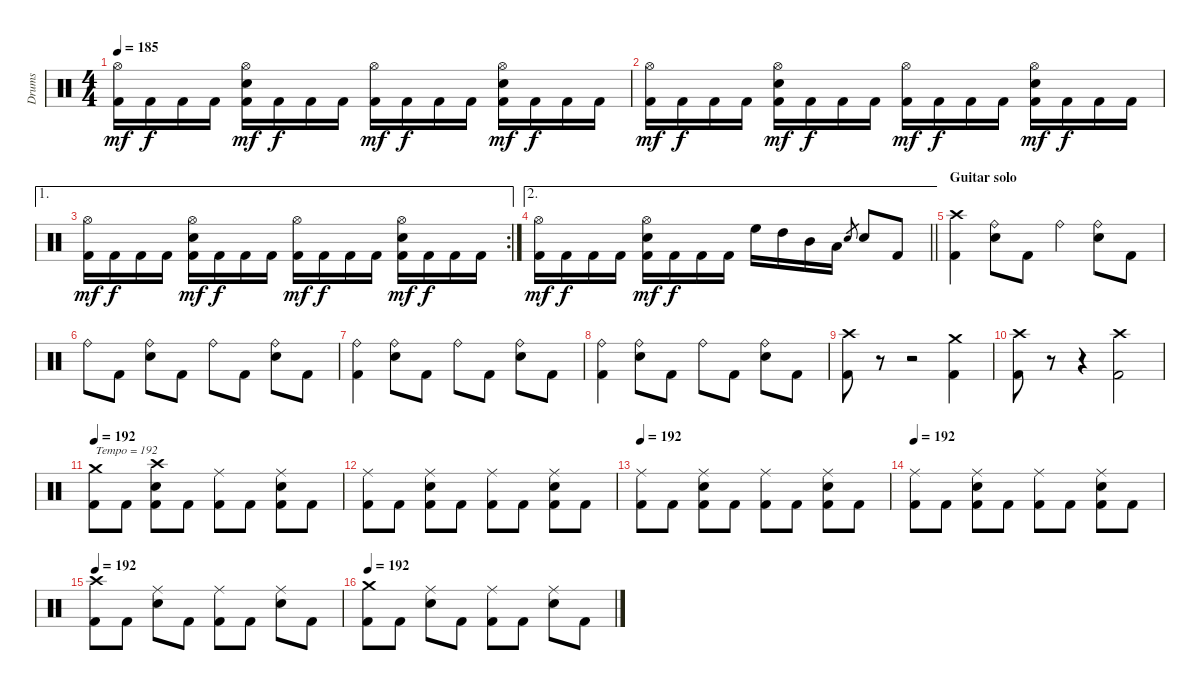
\track ("Drums" "Drums") {instrument percussion}
\staff {score}
\articulation defaults
\ts (4 4)
\tempo 185
\clef neutral
\ks c
("Hi-Hat (open)" "Kick (hit) 2").16{dy mf} "Kick (hit) 2".16{dy f} "Kick (hit) 2".16 "Kick (hit) 2".16 ("Hi-Hat (open)" "Electric Snare (hit)" "Kick (hit) 2").16{dy mf} "Kick (hit) 2".16{dy f} "Kick (hit) 2".16 "Kick (hit) 2".16 ("Hi-Hat (open)" "Kick (hit) 2").16{dy mf} "Kick (hit) 2".16{dy f} "Kick (hit) 2".16 "Kick (hit) 2".16 ("Hi-Hat (open)" "Electric Snare (hit)" "Kick (hit) 2").16{dy mf} "Kick (hit) 2".16{dy f} "Kick (hit) 2".16 "Kick (hit) 2".16 |
("Hi-Hat (open)" "Kick (hit) 2").16{dy mf} "Kick (hit) 2".16{dy f} "Kick (hit) 2".16 "Kick (hit) 2".16 ("Hi-Hat (open)" "Electric Snare (hit)" "Kick (hit) 2").16{dy mf} "Kick (hit) 2".16{dy f} "Kick (hit) 2".16 "Kick (hit) 2".16 ("Hi-Hat (open)" "Kick (hit) 2").16{dy mf} "Kick (hit) 2".16{dy f} "Kick (hit) 2".16 "Kick (hit) 2".16 ("Hi-Hat (open)" "Electric Snare (hit)" "Kick (hit) 2").16{dy mf} "Kick (hit) 2".16{dy f} "Kick (hit) 2".16 "Kick (hit) 2".16 |
\ae 1
\rc 2
("Hi-Hat (open)" "Kick (hit) 2").16{dy mf} "Kick (hit) 2".16{dy f} "Kick (hit) 2".16 "Kick (hit) 2".16 ("Hi-Hat (open)" "Electric Snare (hit)" "Kick (hit) 2").16{dy mf} "Kick (hit) 2".16{dy f} "Kick (hit) 2".16 "Kick (hit) 2".16 ("Hi-Hat (open)" "Kick (hit) 2").16{dy mf} "Kick (hit) 2".16{dy f} "Kick (hit) 2".16 "Kick (hit) 2".16 ("Hi-Hat (open)" "Electric Snare (hit)" "Kick (hit) 2").16{dy mf} "Kick (hit) 2".16{dy f} "Kick (hit) 2".16 "Kick (hit) 2".16 |
\ae 2
\barLineRight lightlight
("Hi-Hat (open)" "Kick (hit) 2").16{dy mf} "Kick (hit) 2".16{dy f} "Kick (hit) 2".16 "Kick (hit) 2".16 ("Hi-Hat (open)" "Electric Snare (hit)" "Kick (hit) 2").16{dy mf} "Kick (hit) 2".16{dy f} "Kick (hit) 2".16 "Kick (hit) 2".16 "High Floor Tom (hit)".16 "High Tom (hit)".16 "Mid Tom (hit)".16 "Low Tom (hit)".16 "Electric Snare (hit)".8{gr} "Electric Snare (hit)".8 "Kick (hit) 2".8 |
\section ("" "Guitar solo")
("Crash high (hit)" "Kick (hit) 2").4 ("Ride (bell)" "Electric Snare (hit)").8 "Kick (hit) 2".8 "Ride (bell)".4 ("Ride (bell)" "Electric Snare (hit)").8 "Kick (hit) 2".8 |
"Ride (bell)".8 "Kick (hit) 2".8 ("Ride (bell)" "Electric Snare (hit)").8 "Kick (hit) 2".8 "Ride (bell)".8 "Kick (hit) 2".8 ("Ride (bell)" "Electric Snare (hit)").8 "Kick (hit) 2".8 |
("Ride (bell)" "Kick (hit) 2").4 ("Ride (bell)" "Electric Snare (hit)").8 "Kick (hit) 2".8 "Ride (bell)".8 "Kick (hit) 2".8 ("Ride (bell)" "Electric Snare (hit)").8 "Kick (hit) 2".8 |
("Ride (bell)" "Kick (hit) 2").4 ("Ride (bell)" "Electric Snare (hit)").8 "Kick (hit) 2".8 "Ride (bell)".8 "Kick (hit) 2".8 ("Ride (bell)" "Electric Snare (hit)").8 "Kick (hit) 2".8 |
("Crash high (hit)" "Kick (hit) 2").8 r.8{volume 0} r.2 ("Crash medium (hit)" "Kick (hit) 2").4{volume 14} |
("Crash high (hit)" "Kick (hit) 2").8 r.8{volume 0} r.4 ("Crash high (hit)" "Kick (hit) 2").2{volume 14} |
\tempo 192
("Crash medium (hit)" "Kick (hit) 2").8{txt "Tempo = 192"} "Kick (hit) 2".8 ("Crash high (hit)" "Electric Snare (hit)" "Kick (hit) 2").8 "Kick (hit) 2".8 ("Ride (middle)" "Kick (hit) 2").8 "Kick (hit) 2".8 ("Ride (middle)" "Electric Snare (hit)" "Kick (hit) 2").8 "Kick (hit) 2".8 |
("Ride (middle)" "Kick (hit) 2").8 "Kick (hit) 2".8 ("Ride (middle)" "Electric Snare (hit)" "Kick (hit) 2").8 "Kick (hit) 2".8 ("Ride (middle)" "Kick (hit) 2").8 "Kick (hit) 2".8 ("Ride (middle)" "Electric Snare (hit)" "Kick (hit) 2").8 "Kick (hit) 2".8 |
\tempo 192
("Ride (middle)" "Kick (hit) 2").8 "Kick (hit) 2".8 ("Ride (middle)" "Electric Snare (hit)" "Kick (hit) 2").8 "Kick (hit) 2".8 ("Ride (middle)" "Kick (hit) 2").8 "Kick (hit) 2".8 ("Ride (middle)" "Electric Snare (hit)" "Kick (hit) 2").8 "Kick (hit) 2".8 |
\tempo 192
("Ride (middle)" "Kick (hit) 2").8 "Kick (hit) 2".8 ("Ride (middle)" "Electric Snare (hit)" "Kick (hit) 2").8 "Kick (hit) 2".8 ("Ride (middle)" "Kick (hit) 2").8 "Kick (hit) 2".8 ("Ride (middle)" "Electric Snare (hit)" "Kick (hit) 2").8 "Kick (hit) 2".8 |
\tempo 192
("Crash high (hit)" "Kick (hit) 2").8 "Kick (hit) 2".8 ("Ride (middle)" "Electric Snare (hit)").8 "Kick (hit) 2".8 ("Ride (middle)" "Kick (hit) 2").8 "Kick (hit) 2".8 ("Ride (middle)" "Electric Snare (hit)").8 "Kick (hit) 2".8 |
\tempo 192
("Crash medium (hit)" "Kick (hit) 2").8 "Kick (hit) 2".8 ("Ride (middle)" "Electric Snare (hit)").8 "Kick (hit) 2".8 ("Ride (middle)" "Kick (hit) 2").8 "Kick (hit) 2".8 ("Ride (middle)" "Electric Snare (hit)").8 "Kick (hit) 2".8
